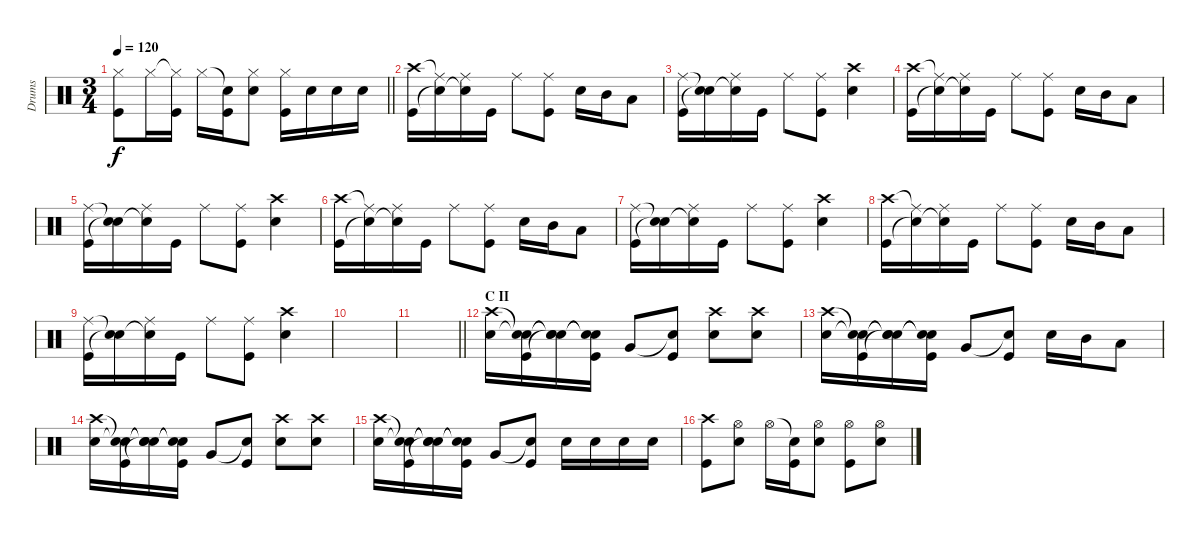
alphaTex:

\track ("Drums" "Drums") {instrument percussion}
\staff {score}
\articulation defaults
\ts (3 4)
\tempo 120
\clef neutral
\barLineRight lightlight
\ks c
("Hi-Hat (closed)" "Kick (hit)").8{dy f} "Hi-Hat (closed)".16 ("Hi-Hat (closed)"{t} "Kick (hit)").16 "Hi-Hat (closed)".16 ("Snare (hit)"{t} "Kick (hit)").16 ("Hi-Hat (closed)" "Snare (hit) 2").8 ("Hi-Hat (closed)" "Kick (hit)").16 "Snare (hit) 2".16 "Snare (hit) 2".16 "Snare (hit) 2".16 |
("Crash high (hit)" "Kick (hit)").16 ("Ride (middle)"{t} "Snare (hit)"{t}).16 ("Ride (middle)" "Snare (hit)"{t}).16 "Kick (hit)".16 "Ride (middle)".8 ("Ride (middle)" "Kick (hit)").8 "Snare (hit) 2".16 "Mid Tom (hit)".16 "Low Tom (hit)".8 |
("Ride (middle)" "Kick (hit)").16 ("Snare (hit)"{t} "Snare (hit)"{t}).16 ("Ride (middle)" "Snare (hit)"{t}).16 "Kick (hit)".16 "Ride (middle)".8 ("Ride (middle)" "Kick (hit)").8 ("Crash high (hit)" "Snare (hit) 2").4 |
("Crash high (hit)" "Kick (hit)").16 ("Ride (middle)"{t} "Snare (hit)"{t}).16 ("Ride (middle)" "Snare (hit)"{t}).16 "Kick (hit)".16 "Ride (middle)".8 ("Ride (middle)" "Kick (hit)").8 "Snare (hit) 2".16 "Mid Tom (hit)".16 "Low Tom (hit)".8 |
("Ride (middle)" "Kick (hit)").16 ("Snare (hit)"{t} "Snare (hit)"{t}).16 ("Ride (middle)" "Snare (hit)"{t}).16 "Kick (hit)".16 "Ride (middle)".8 ("Ride (middle)" "Kick (hit)").8 ("Crash high (hit)" "Snare (hit) 2").4 |
("Crash high (hit)" "Kick (hit)").16 ("Ride (middle)"{t} "Snare (hit)"{t}).16 ("Ride (middle)" "Snare (hit)"{t}).16 "Kick (hit)".16 "Ride (middle)".8 ("Ride (middle)" "Kick (hit)").8 "Snare (hit) 2".16 "Mid Tom (hit)".16 "Low Tom (hit)".8 |
("Ride (middle)" "Kick (hit)").16 ("Snare (hit)"{t} "Snare (hit)"{t}).16 ("Ride (middle)" "Snare (hit)"{t}).16 "Kick (hit)".16 "Ride (middle)".8 ("Ride (middle)" "Kick (hit)").8 ("Crash high (hit)" "Snare (hit) 2").4 |
("Crash high (hit)" "Kick (hit)").16 ("Ride (middle)"{t} "Snare (hit)"{t}).16 ("Ride (middle)" "Snare (hit)"{t}).16 "Kick (hit)".16 "Ride (middle)".8 ("Ride (middle)" "Kick (hit)").8 "Snare (hit) 2".16 "Mid Tom (hit)".16 "Low Tom (hit)".8 |
("Ride (middle)" "Kick (hit)").16 ("Snare (hit)"{t} "Snare (hit)"{t}).16 ("Ride (middle)" "Snare (hit)"{t}).16 "Kick (hit)".16 "Ride (middle)".8 ("Ride (middle)" "Kick (hit)").8 ("Crash high (hit)" "Snare (hit) 2").4 |
|
\barLineRight lightlight
|
\section ("" "C II")
("Crash high (hit)" "Snare (hit) 2").16 ("Snare (hit)"{t} "Snare (hit)"{t} "Kick (hit)").16 ("Snare (hit)"{t} "Snare (hit)"{t} "Snare (hit)"{t}).16 ("Snare (hit)"{t} "Snare (hit)"{t} "Kick (hit)").16 "Very Low Tom (hit)".8 ("Snare (hit)"{t} "Kick (hit)").8 ("Crash high (hit)" "Snare (hit) 2").8 ("Crash high (hit)" "Snare (hit) 2").8 |
("Crash high (hit)" "Snare (hit) 2").16 ("Snare (hit)"{t} "Snare (hit)"{t} "Kick (hit)").16 ("Snare (hit)"{t} "Snare (hit)"{t} "Snare (hit)"{t}).16 ("Snare (hit)"{t} "Snare (hit)"{t} "Kick (hit)").16 "Very Low Tom (hit)".8 ("Snare (hit)"{t} "Kick (hit)").8 "Snare (hit) 2".16 "Mid Tom (hit)".16 "Low Tom (hit)".8 |
("Crash high (hit)" "Snare (hit) 2").16 ("Snare (hit)"{t} "Snare (hit)"{t} "Kick (hit)").16 ("Snare (hit)"{t} "Snare (hit)"{t} "Snare (hit)"{t}).16 ("Snare (hit)"{t} "Snare (hit)"{t} "Kick (hit)").16 "Very Low Tom (hit)".8 ("Snare (hit)"{t} "Kick (hit)").8 ("Crash high (hit)" "Snare (hit) 2").8 ("Crash high (hit)" "Snare (hit) 2").8 |
("Crash high (hit)" "Snare (hit) 2").16 ("Snare (hit)"{t} "Snare (hit)"{t} "Kick (hit)").16 ("Snare (hit)"{t} "Snare (hit)"{t} "Snare (hit)"{t}).16 ("Snare (hit)"{t} "Snare (hit)"{t} "Kick (hit)").16 "Very Low Tom (hit)".8 ("Snare (hit)"{t} "Kick (hit)").8 "Snare (hit) 2".16 "Snare (hit) 2".16 "Snare (hit) 2".16 "Snare (hit) 2".16 |
("Crash high (hit)" "Kick (hit)").8 ("Hi-Hat (open)" "Snare (hit) 2").8 "Hi-Hat (open)".16 ("Snare (hit)"{t} "Kick (hit)").16 ("Hi-Hat (open)" "Snare (hit) 2").8 ("Hi-Hat (open)" "Kick (hit)").8 ("Hi-Hat (open)" "Snare (hit) 2").8
